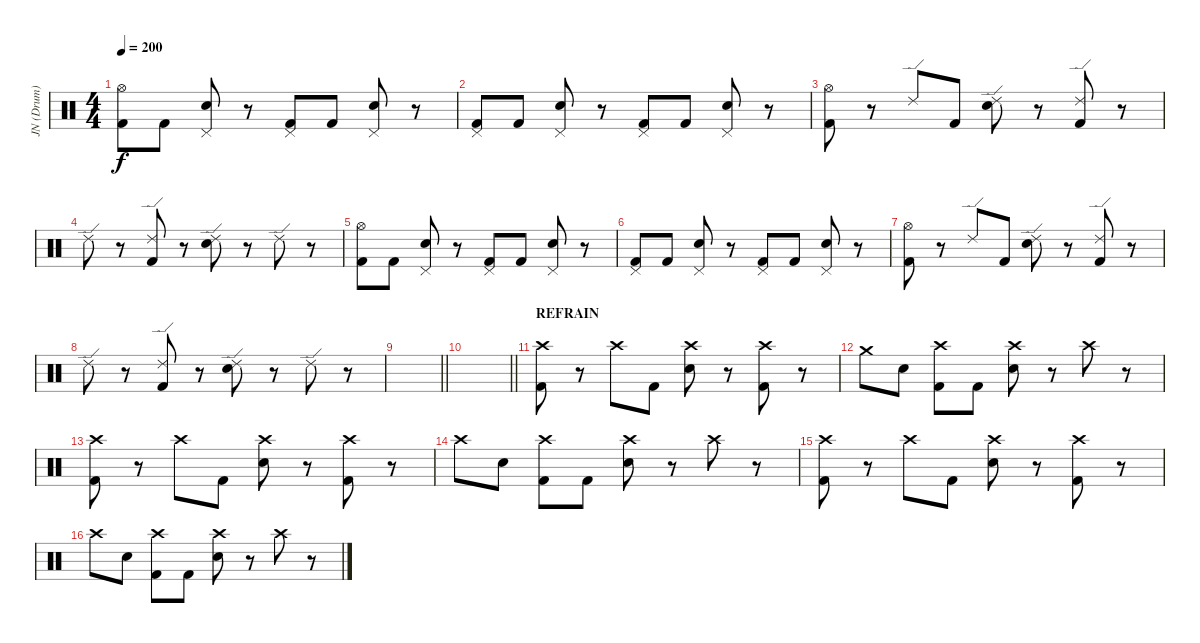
\track ("JN (Drum)" "JN (Drum)") {instrument percussion}
\staff {score}
\articulation defaults
\ts (4 4)
\tempo 200
\clef neutral
\ks c
("Hi-Hat (open)" "Kick (hit) 2").8{dy f} "Kick (hit) 2".8 ("Pedal Hi-Hat (hit)" "Electric Snare (hit)").8 r.8 ("Pedal Hi-Hat (hit)" "Kick (hit) 2").8 "Kick (hit) 2".8 ("Pedal Hi-Hat (hit)" "Electric Snare (hit)").8 r.8 |
("Pedal Hi-Hat (hit)" "Kick (hit) 2").8 "Kick (hit) 2".8 ("Pedal Hi-Hat (hit)" "Electric Snare (hit)").8 r.8 ("Pedal Hi-Hat (hit)" "Kick (hit) 2").8 "Kick (hit) 2".8 ("Pedal Hi-Hat (hit)" "Electric Snare (hit)").8 r.8 |
("Hi-Hat (open)" "Kick (hit) 2").8 r.8 "Ride (edge) 2".8 "Kick (hit) 2".8 ("Ride (edge) 2" "Electric Snare (hit)").8 r.8 ("Ride (edge) 2" "Kick (hit) 2").8 r.8 |
"Ride (edge) 2".8 r.8 ("Ride (edge) 2" "Kick (hit) 2").8 r.8 ("Ride (edge) 2" "Electric Snare (hit)").8 r.8 "Ride (edge) 2".8 r.8 |
("Hi-Hat (open)" "Kick (hit) 2").8 "Kick (hit) 2".8 ("Pedal Hi-Hat (hit)" "Electric Snare (hit)").8 r.8 ("Pedal Hi-Hat (hit)" "Kick (hit) 2").8 "Kick (hit) 2".8 ("Pedal Hi-Hat (hit)" "Electric Snare (hit)").8 r.8 |
("Pedal Hi-Hat (hit)" "Kick (hit) 2").8 "Kick (hit) 2".8 ("Pedal Hi-Hat (hit)" "Electric Snare (hit)").8 r.8 ("Pedal Hi-Hat (hit)" "Kick (hit) 2").8 "Kick (hit) 2".8 ("Pedal Hi-Hat (hit)" "Electric Snare (hit)").8 r.8 |
("Hi-Hat (open)" "Kick (hit) 2").8 r.8 "Ride (edge) 2".8 "Kick (hit) 2".8 ("Ride (edge) 2" "Electric Snare (hit)").8 r.8 ("Ride (edge) 2" "Kick (hit) 2").8 r.8 |
"Ride (edge) 2".8 r.8 ("Ride (edge) 2" "Kick (hit) 2").8 r.8 ("Ride (edge) 2" "Electric Snare (hit)").8 r.8 "Ride (edge) 2".8 r.8 |
\barLineRight lightlight
|
\barLineRight lightlight
|
\section ("" "REFRAIN")
("Crash high (hit)" "Kick (hit) 2").8 r.8 "Crash high (hit)".8 "Kick (hit) 2".8 ("Crash high (hit)" "Electric Snare (hit)").8 r.8 ("Crash high (hit)" "Kick (hit) 2").8 r.8 |
"Crash medium (hit)".8 "Electric Snare (hit)".8 ("Crash high (hit)" "Kick (hit) 2").8 "Kick (hit) 2".8 ("Crash high (hit)" "Electric Snare (hit)").8 r.8 "Crash high (hit)".8 r.8 |
("Crash high (hit)" "Kick (hit) 2").8 r.8 "Crash high (hit)".8 "Kick (hit) 2".8 ("Crash high (hit)" "Electric Snare (hit)").8 r.8 ("Crash high (hit)" "Kick (hit) 2").8 r.8 |
"Crash high (hit)".8 "Electric Snare (hit)".8 ("Crash high (hit)" "Kick (hit) 2").8 "Kick (hit) 2".8 ("Crash high (hit)" "Electric Snare (hit)").8 r.8 "Crash high (hit)".8 r.8 |
("Crash high (hit)" "Kick (hit) 2").8 r.8 "Crash high (hit)".8 "Kick (hit) 2".8 ("Crash high (hit)" "Electric Snare (hit)").8 r.8 ("Crash high (hit)" "Kick (hit) 2").8 r.8 |
"Crash high (hit)".8 "Electric Snare (hit)".8 ("Crash high (hit)" "Kick (hit) 2").8 "Kick (hit) 2".8 ("Crash high (hit)" "Electric Snare (hit)").8 r.8 "Crash high (hit)".8 r.8
